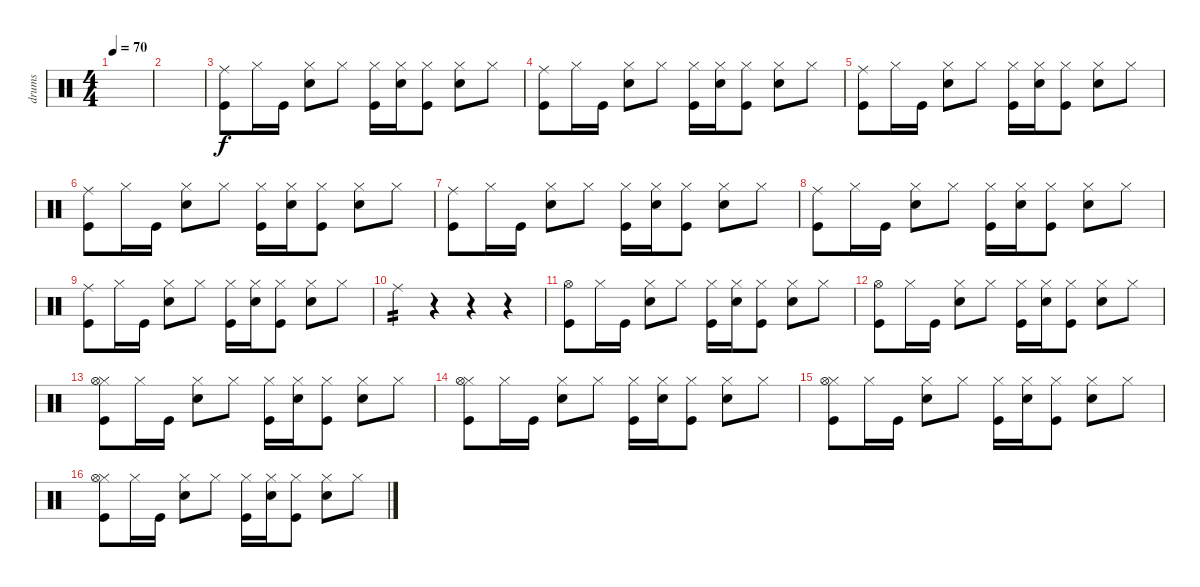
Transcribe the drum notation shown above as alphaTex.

\track ("drums" "drums") {instrument percussion}
\staff {score}
\articulation defaults
\ts (4 4)
\tempo 70
\clef neutral
\ks c
|
|
("Kick (hit)" "Ride (middle)").8 "Hi-Hat (closed)".16 "Kick (hit)".16 ("Snare (hit) 2" "Hi-Hat (closed)").8 "Hi-Hat (closed)".8 ("Kick (hit)" "Hi-Hat (closed)").16 ("Snare (hit) 2" "Hi-Hat (closed)").16 ("Kick (hit)" "Hi-Hat (closed)").8 ("Snare (hit) 2" "Hi-Hat (closed)").8 "Hi-Hat (closed)".8 |
("Kick (hit)" "Ride (middle)").8 "Hi-Hat (closed)".16 "Kick (hit)".16 ("Snare (hit) 2" "Hi-Hat (closed)").8 "Hi-Hat (closed)".8 ("Kick (hit)" "Hi-Hat (closed)").16 ("Snare (hit) 2" "Hi-Hat (closed)").16 ("Kick (hit)" "Hi-Hat (closed)").8 ("Snare (hit) 2" "Hi-Hat (closed)").8 "Hi-Hat (closed)".8 |
("Kick (hit)" "Ride (middle)").8 "Hi-Hat (closed)".16 "Kick (hit)".16 ("Snare (hit) 2" "Hi-Hat (closed)").8 "Hi-Hat (closed)".8 ("Kick (hit)" "Hi-Hat (closed)").16 ("Snare (hit) 2" "Hi-Hat (closed)").16 ("Kick (hit)" "Hi-Hat (closed)").8 ("Snare (hit) 2" "Hi-Hat (closed)").8 "Hi-Hat (closed)".8 |
("Kick (hit)" "Ride (middle)").8 "Hi-Hat (closed)".16 "Kick (hit)".16 ("Snare (hit) 2" "Hi-Hat (closed)").8 "Hi-Hat (closed)".8 ("Kick (hit)" "Hi-Hat (closed)").16 ("Snare (hit) 2" "Hi-Hat (closed)").16 ("Kick (hit)" "Hi-Hat (closed)").8 ("Snare (hit) 2" "Hi-Hat (closed)").8 "Hi-Hat (closed)".8 |
("Kick (hit)" "Ride (middle)").8 "Hi-Hat (closed)".16 "Kick (hit)".16 ("Snare (hit) 2" "Hi-Hat (closed)").8 "Hi-Hat (closed)".8 ("Kick (hit)" "Hi-Hat (closed)").16 ("Snare (hit) 2" "Hi-Hat (closed)").16 ("Kick (hit)" "Hi-Hat (closed)").8 ("Snare (hit) 2" "Hi-Hat (closed)").8 "Hi-Hat (closed)".8 |
("Kick (hit)" "Ride (middle)").8 "Hi-Hat (closed)".16 "Kick (hit)".16 ("Snare (hit) 2" "Hi-Hat (closed)").8 "Hi-Hat (closed)".8 ("Kick (hit)" "Hi-Hat (closed)").16 ("Snare (hit) 2" "Hi-Hat (closed)").16 ("Kick (hit)" "Hi-Hat (closed)").8 ("Snare (hit) 2" "Hi-Hat (closed)").8 "Hi-Hat (closed)".8 |
("Kick (hit)" "Ride (middle)").8 "Hi-Hat (closed)".16 "Kick (hit)".16 ("Snare (hit) 2" "Hi-Hat (closed)").8 "Hi-Hat (closed)".8 ("Kick (hit)" "Hi-Hat (closed)").16 ("Snare (hit) 2" "Hi-Hat (closed)").16 ("Kick (hit)" "Hi-Hat (closed)").8 ("Snare (hit) 2" "Hi-Hat (closed)").8 "Hi-Hat (closed)".8 |
"Ride (middle)".4{tp 2} r.4 r.4 r.4 |
("Kick (hit)" "Hi-Hat (open)").8 "Hi-Hat (closed)".16 "Kick (hit)".16 ("Snare (hit) 2" "Hi-Hat (closed)").8 "Hi-Hat (closed)".8 ("Kick (hit)" "Hi-Hat (closed)").16 ("Snare (hit) 2" "Hi-Hat (closed)").16 ("Kick (hit)" "Hi-Hat (closed)").8 ("Snare (hit) 2" "Hi-Hat (closed)").8 "Hi-Hat (closed)".8 |
("Kick (hit)" "Hi-Hat (open)").8 "Hi-Hat (closed)".16 "Kick (hit)".16 ("Snare (hit) 2" "Hi-Hat (closed)").8 "Hi-Hat (closed)".8 ("Kick (hit)" "Hi-Hat (closed)").16 ("Snare (hit) 2" "Hi-Hat (closed)").16 ("Kick (hit)" "Hi-Hat (closed)").8 ("Snare (hit) 2" "Hi-Hat (closed)").8 "Hi-Hat (closed)".8 |
("Kick (hit)" "Hi-Hat (closed)" "Hi-Hat (open)").8 "Hi-Hat (closed)".16 "Kick (hit)".16 ("Snare (hit) 2" "Hi-Hat (closed)").8 "Hi-Hat (closed)".8 ("Kick (hit)" "Hi-Hat (closed)").16 ("Snare (hit) 2" "Hi-Hat (closed)").16 ("Kick (hit)" "Hi-Hat (closed)").8 ("Snare (hit) 2" "Hi-Hat (closed)").8 "Hi-Hat (closed)".8 |
("Kick (hit)" "Hi-Hat (closed)" "Hi-Hat (open)").8 "Hi-Hat (closed)".16 "Kick (hit)".16 ("Snare (hit) 2" "Hi-Hat (closed)").8 "Hi-Hat (closed)".8 ("Kick (hit)" "Hi-Hat (closed)").16 ("Snare (hit) 2" "Hi-Hat (closed)").16 ("Kick (hit)" "Hi-Hat (closed)").8 ("Snare (hit) 2" "Hi-Hat (closed)").8 "Hi-Hat (closed)".8 |
("Kick (hit)" "Hi-Hat (closed)" "Hi-Hat (open)").8 "Hi-Hat (closed)".16 "Kick (hit)".16 ("Snare (hit) 2" "Hi-Hat (closed)").8 "Hi-Hat (closed)".8 ("Kick (hit)" "Hi-Hat (closed)").16 ("Snare (hit) 2" "Hi-Hat (closed)").16 ("Kick (hit)" "Hi-Hat (closed)").8 ("Snare (hit) 2" "Hi-Hat (closed)").8 "Hi-Hat (closed)".8 |
("Kick (hit)" "Hi-Hat (closed)" "Hi-Hat (open)").8 "Hi-Hat (closed)".16 "Kick (hit)".16 ("Snare (hit) 2" "Hi-Hat (closed)").8 "Hi-Hat (closed)".8 ("Kick (hit)" "Hi-Hat (closed)").16 ("Snare (hit) 2" "Hi-Hat (closed)").16 ("Kick (hit)" "Hi-Hat (closed)").8 ("Snare (hit) 2" "Hi-Hat (closed)").8 "Hi-Hat (closed)".8
